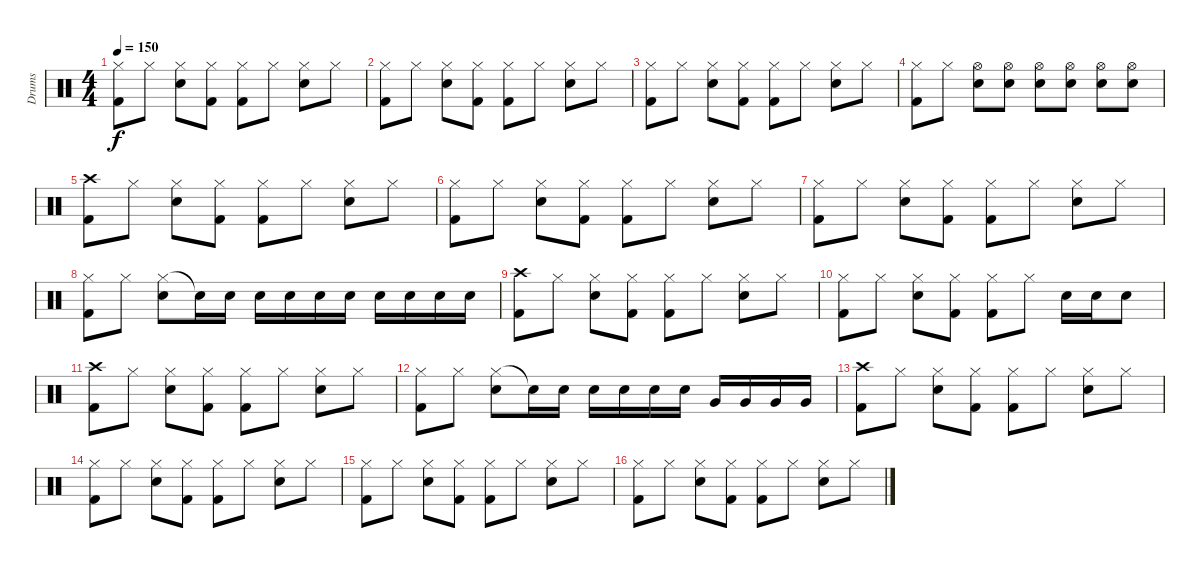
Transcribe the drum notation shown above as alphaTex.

\track ("Drums" "Drums") {instrument percussion}
\staff {score}
\articulation defaults
\ts (4 4)
\tempo 150
\clef neutral
\ks c
("Hi-Hat (closed)" "Kick (hit) 2").8{dy f} "Hi-Hat (closed)".8 ("Hi-Hat (closed)" "Snare (hit) 2").8 ("Hi-Hat (closed)" "Kick (hit) 2").8 ("Hi-Hat (closed)" "Kick (hit) 2").8 "Hi-Hat (closed)".8 ("Hi-Hat (closed)" "Snare (hit) 2").8 "Hi-Hat (closed)".8 |
("Hi-Hat (closed)" "Kick (hit) 2").8 "Hi-Hat (closed)".8 ("Hi-Hat (closed)" "Snare (hit) 2").8 ("Hi-Hat (closed)" "Kick (hit) 2").8 ("Hi-Hat (closed)" "Kick (hit) 2").8 "Hi-Hat (closed)".8 ("Hi-Hat (closed)" "Snare (hit) 2").8 "Hi-Hat (closed)".8 |
("Hi-Hat (closed)" "Kick (hit) 2").8 "Hi-Hat (closed)".8 ("Hi-Hat (closed)" "Snare (hit) 2").8 ("Hi-Hat (closed)" "Kick (hit) 2").8 ("Hi-Hat (closed)" "Kick (hit) 2").8 "Hi-Hat (closed)".8 ("Hi-Hat (closed)" "Snare (hit) 2").8 "Hi-Hat (closed)".8 |
("Hi-Hat (closed)" "Kick (hit) 2").8 "Hi-Hat (closed)".8 ("Hi-Hat (open)" "Snare (hit) 2").8 ("Hi-Hat (open)" "Snare (hit) 2").8 ("Hi-Hat (open)" "Snare (hit) 2").8 ("Hi-Hat (open)" "Snare (hit) 2").8 ("Hi-Hat (open)" "Snare (hit) 2").8 ("Hi-Hat (open)" "Snare (hit) 2").8 |
("Crash high (hit)" "Kick (hit) 2").8 "Hi-Hat (closed)".8 ("Hi-Hat (closed)" "Snare (hit) 2").8 ("Hi-Hat (closed)" "Kick (hit) 2").8 ("Hi-Hat (closed)" "Kick (hit) 2").8 "Hi-Hat (closed)".8 ("Hi-Hat (closed)" "Snare (hit) 2").8 "Hi-Hat (closed)".8 |
("Hi-Hat (closed)" "Kick (hit) 2").8 "Hi-Hat (closed)".8 ("Hi-Hat (closed)" "Snare (hit) 2").8 ("Hi-Hat (closed)" "Kick (hit) 2").8 ("Hi-Hat (closed)" "Kick (hit) 2").8 "Hi-Hat (closed)".8 ("Hi-Hat (closed)" "Snare (hit) 2").8 "Hi-Hat (closed)".8 |
("Hi-Hat (closed)" "Kick (hit) 2").8 "Hi-Hat (closed)".8 ("Hi-Hat (closed)" "Snare (hit) 2").8 ("Hi-Hat (closed)" "Kick (hit) 2").8 ("Hi-Hat (closed)" "Kick (hit) 2").8 "Hi-Hat (closed)".8 ("Hi-Hat (closed)" "Snare (hit) 2").8 "Hi-Hat (closed)".8 |
("Hi-Hat (closed)" "Kick (hit) 2").8 "Hi-Hat (closed)".8 ("Hi-Hat (closed)" "Snare (hit) 2").8 "Snare (hit) 2"{t}.16 "Snare (hit) 2".16 "Snare (hit) 2".16 "Snare (hit) 2".16 "Snare (hit) 2".16 "Snare (hit) 2".16 "Snare (hit) 2".16 "Snare (hit) 2".16 "Snare (hit) 2".16 "Snare (hit) 2".16 |
("Crash high (hit)" "Kick (hit) 2").8 "Hi-Hat (closed)".8 ("Hi-Hat (closed)" "Snare (hit) 2").8 ("Hi-Hat (closed)" "Kick (hit) 2").8 ("Hi-Hat (closed)" "Kick (hit) 2").8 "Hi-Hat (closed)".8 ("Hi-Hat (closed)" "Snare (hit) 2").8 "Hi-Hat (closed)".8 |
("Hi-Hat (closed)" "Kick (hit) 2").8 "Hi-Hat (closed)".8 ("Hi-Hat (closed)" "Snare (hit) 2").8 ("Hi-Hat (closed)" "Kick (hit) 2").8 ("Hi-Hat (closed)" "Kick (hit) 2").8 "Hi-Hat (closed)".8 "Snare (hit) 2".16 "Snare (hit) 2".16 "Snare (hit) 2".8 |
("Crash high (hit)" "Kick (hit) 2").8 "Hi-Hat (closed)".8 ("Hi-Hat (closed)" "Snare (hit) 2").8 ("Hi-Hat (closed)" "Kick (hit) 2").8 ("Hi-Hat (closed)" "Kick (hit) 2").8 "Hi-Hat (closed)".8 ("Hi-Hat (closed)" "Snare (hit) 2").8 "Hi-Hat (closed)".8 |
("Hi-Hat (closed)" "Kick (hit) 2").8 "Hi-Hat (closed)".8 ("Hi-Hat (closed)" "Snare (hit) 2").8 "Snare (hit)"{t}.16 "Snare (hit) 2".16 "Snare (hit) 2".16 "Snare (hit) 2".16 "Snare (hit) 2".16 "Snare (hit) 2".16 "Very Low Tom (hit)".16 "Very Low Tom (hit)".16 "Very Low Tom (hit)".16 "Very Low Tom (hit)".16 |
("Crash high (hit)" "Kick (hit) 2").8 "Hi-Hat (closed)".8 ("Hi-Hat (closed)" "Snare (hit) 2").8 ("Hi-Hat (closed)" "Kick (hit) 2").8 ("Hi-Hat (closed)" "Kick (hit) 2").8 "Hi-Hat (closed)".8 ("Hi-Hat (closed)" "Snare (hit) 2").8 "Hi-Hat (closed)".8 |
("Hi-Hat (closed)" "Kick (hit) 2").8 "Hi-Hat (closed)".8 ("Hi-Hat (closed)" "Snare (hit) 2").8 ("Hi-Hat (closed)" "Kick (hit) 2").8 ("Hi-Hat (closed)" "Kick (hit) 2").8 "Hi-Hat (closed)".8 ("Hi-Hat (closed)" "Snare (hit) 2").8 "Hi-Hat (closed)".8 |
("Hi-Hat (closed)" "Kick (hit) 2").8 "Hi-Hat (closed)".8 ("Hi-Hat (closed)" "Snare (hit) 2").8 ("Hi-Hat (closed)" "Kick (hit) 2").8 ("Hi-Hat (closed)" "Kick (hit) 2").8 "Hi-Hat (closed)".8 ("Hi-Hat (closed)" "Snare (hit) 2").8 "Hi-Hat (closed)".8 |
("Hi-Hat (closed)" "Kick (hit) 2").8 "Hi-Hat (closed)".8 ("Hi-Hat (closed)" "Snare (hit) 2").8 ("Hi-Hat (closed)" "Kick (hit) 2").8 ("Hi-Hat (closed)" "Kick (hit) 2").8 "Hi-Hat (closed)".8 ("Hi-Hat (closed)" "Snare (hit) 2").8 "Hi-Hat (closed)".8
